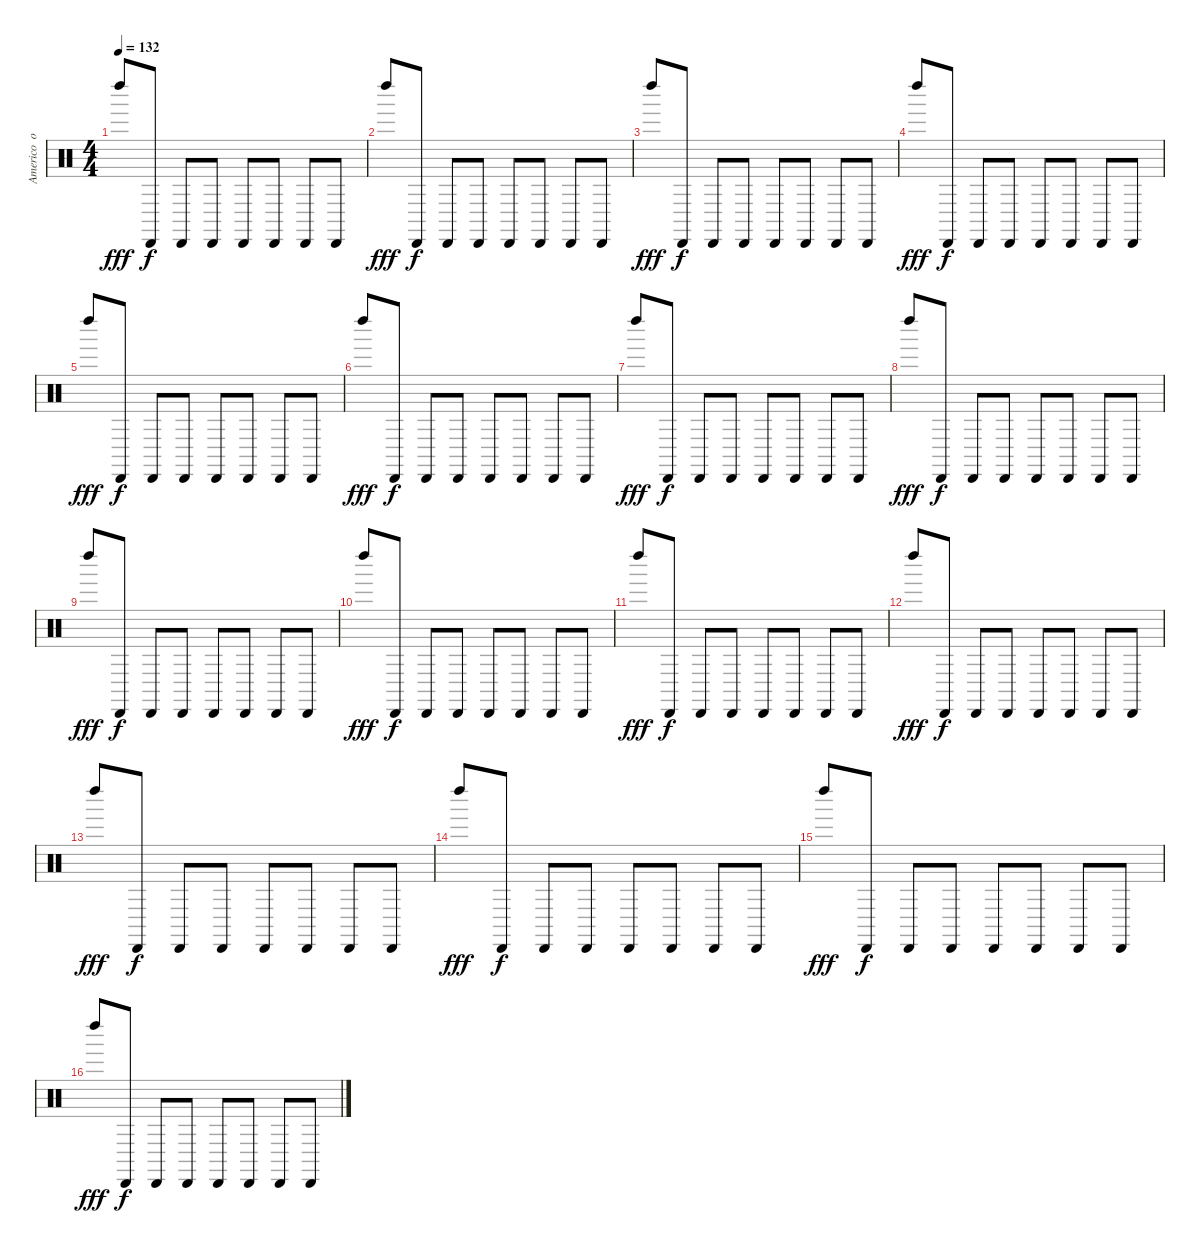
\track ("Americo  ortega percussion" "Americo  o") {instrument percussion}
\staff {score}
\articulation defaults
\ts (4 4)
\tempo 132
\clef neutral
\ks c "Left Maraca (hit)".8{dy fff} "Cabasa (hit)".8{dy f} "Cabasa (hit)".8 "Cabasa (hit)".8 "Cabasa (hit)".8 "Cabasa (hit)".8 "Cabasa (hit)".8 "Cabasa (hit)".8
|
"Left Maraca (hit)".8{dy fff} "Cabasa (hit)".8{dy f} "Cabasa (hit)".8 "Cabasa (hit)".8 "Cabasa (hit)".8 "Cabasa (hit)".8 "Cabasa (hit)".8 "Cabasa (hit)".8 |
"Left Maraca (hit)".8{dy fff} "Cabasa (hit)".8{dy f} "Cabasa (hit)".8 "Cabasa (hit)".8 "Cabasa (hit)".8 "Cabasa (hit)".8 "Cabasa (hit)".8 "Cabasa (hit)".8 |
"Left Maraca (hit)".8{dy fff} "Cabasa (hit)".8{dy f} "Cabasa (hit)".8 "Cabasa (hit)".8 "Cabasa (hit)".8 "Cabasa (hit)".8 "Cabasa (hit)".8 "Cabasa (hit)".8 |
"Left Maraca (hit)".8{dy fff} "Cabasa (hit)".8{dy f} "Cabasa (hit)".8 "Cabasa (hit)".8 "Cabasa (hit)".8 "Cabasa (hit)".8 "Cabasa (hit)".8 "Cabasa (hit)".8 |
"Left Maraca (hit)".8{dy fff} "Cabasa (hit)".8{dy f} "Cabasa (hit)".8 "Cabasa (hit)".8 "Cabasa (hit)".8 "Cabasa (hit)".8 "Cabasa (hit)".8 "Cabasa (hit)".8 |
"Left Maraca (hit)".8{dy fff} "Cabasa (hit)".8{dy f} "Cabasa (hit)".8 "Cabasa (hit)".8 "Cabasa (hit)".8 "Cabasa (hit)".8 "Cabasa (hit)".8 "Cabasa (hit)".8 |
"Left Maraca (hit)".8{dy fff} "Cabasa (hit)".8{dy f} "Cabasa (hit)".8 "Cabasa (hit)".8 "Cabasa (hit)".8 "Cabasa (hit)".8 "Cabasa (hit)".8 "Cabasa (hit)".8 |
"Left Maraca (hit)".8{dy fff} "Cabasa (hit)".8{dy f} "Cabasa (hit)".8 "Cabasa (hit)".8 "Cabasa (hit)".8 "Cabasa (hit)".8 "Cabasa (hit)".8 "Cabasa (hit)".8 |
"Left Maraca (hit)".8{dy fff} "Cabasa (hit)".8{dy f} "Cabasa (hit)".8 "Cabasa (hit)".8 "Cabasa (hit)".8 "Cabasa (hit)".8 "Cabasa (hit)".8 "Cabasa (hit)".8 |
"Left Maraca (hit)".8{dy fff} "Cabasa (hit)".8{dy f} "Cabasa (hit)".8 "Cabasa (hit)".8 "Cabasa (hit)".8 "Cabasa (hit)".8 "Cabasa (hit)".8 "Cabasa (hit)".8 |
"Left Maraca (hit)".8{dy fff} "Cabasa (hit)".8{dy f} "Cabasa (hit)".8 "Cabasa (hit)".8 "Cabasa (hit)".8 "Cabasa (hit)".8 "Cabasa (hit)".8 "Cabasa (hit)".8 |
"Left Maraca (hit)".8{dy fff} "Cabasa (hit)".8{dy f} "Cabasa (hit)".8 "Cabasa (hit)".8 "Cabasa (hit)".8 "Cabasa (hit)".8 "Cabasa (hit)".8 "Cabasa (hit)".8 |
"Left Maraca (hit)".8{dy fff} "Cabasa (hit)".8{dy f} "Cabasa (hit)".8 "Cabasa (hit)".8 "Cabasa (hit)".8 "Cabasa (hit)".8 "Cabasa (hit)".8 "Cabasa (hit)".8 |
"Left Maraca (hit)".8{dy fff} "Cabasa (hit)".8{dy f} "Cabasa (hit)".8 "Cabasa (hit)".8 "Cabasa (hit)".8 "Cabasa (hit)".8 "Cabasa (hit)".8 "Cabasa (hit)".8 |
"Left Maraca (hit)".8{dy fff} "Cabasa (hit)".8{dy f} "Cabasa (hit)".8 "Cabasa (hit)".8 "Cabasa (hit)".8 "Cabasa (hit)".8 "Cabasa (hit)".8 "Cabasa (hit)".8
